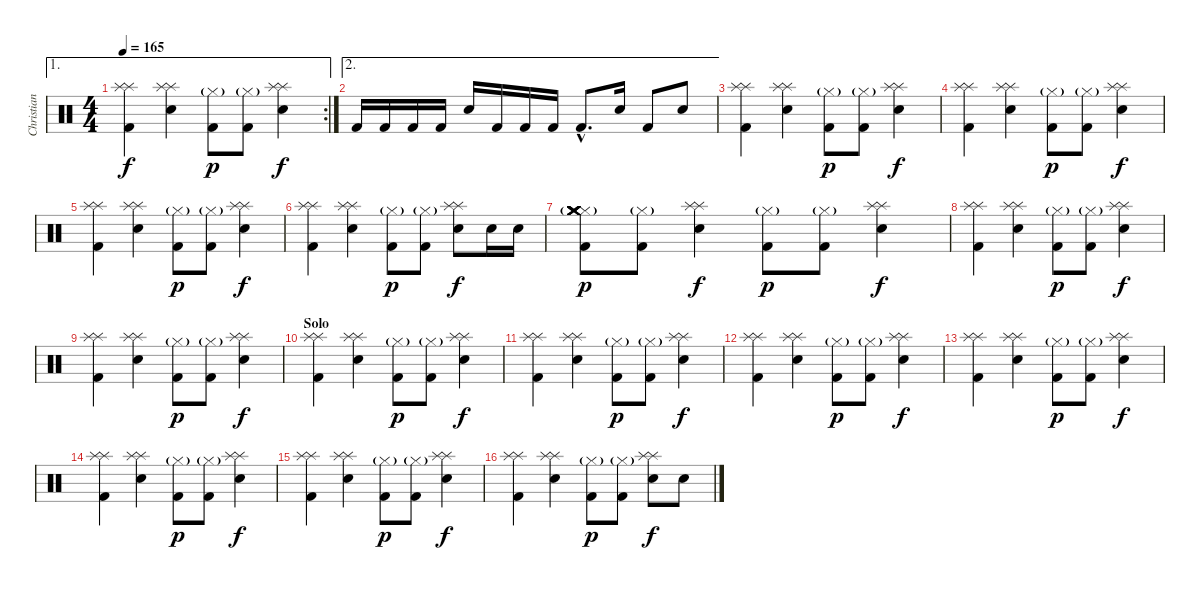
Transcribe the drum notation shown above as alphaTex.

\track ("Christian Batteria" "Christian ") {instrument percussion}
\staff {score}
\articulation defaults
\ae 1
\rc 2
\ts (4 4)
\tempo 165
\clef neutral
\ks c
("Splash (hit)" "Splash (hit)" "Kick (hit) 2").4{dy f} ("Splash (hit)" "Splash (hit)" "Snare (hit) 2").4 ("Hi-Hat (closed)"{g} "Kick (hit) 2").8{dy p} ("Hi-Hat (closed)"{g} "Kick (hit) 2").8 ("Splash (hit)" "Splash (hit)" "Snare (hit) 2").4{dy f} |
\ae 2 "Kick (hit) 2".16 "Kick (hit) 2".16 "Kick (hit) 2".16 "Kick (hit) 2".16 "Snare (hit) 2".16 "Kick (hit) 2".16 "Kick (hit) 2".16 "Kick (hit) 2".16 "Kick (hit) 2"{hac}.8{d} "Snare (hit) 2".16 "Kick (hit) 2".8 "Snare (hit) 2".8
|
("Splash (hit)" "Splash (hit)" "Kick (hit) 2").4 ("Splash (hit)" "Splash (hit)" "Snare (hit) 2").4 ("Hi-Hat (closed)"{g} "Kick (hit) 2").8{dy p} ("Hi-Hat (closed)"{g} "Kick (hit) 2").8 ("Splash (hit)" "Splash (hit)" "Snare (hit) 2").4{dy f} |
("Splash (hit)" "Splash (hit)" "Kick (hit) 2").4 ("Splash (hit)" "Splash (hit)" "Snare (hit) 2").4 ("Hi-Hat (closed)"{g} "Kick (hit) 2").8{dy p} ("Hi-Hat (closed)"{g} "Kick (hit) 2").8 ("Splash (hit)" "Splash (hit)" "Snare (hit) 2").4{dy f} |
("Splash (hit)" "Splash (hit)" "Kick (hit) 2").4 ("Splash (hit)" "Splash (hit)" "Snare (hit) 2").4 ("Hi-Hat (closed)"{g} "Kick (hit) 2").8{dy p} ("Hi-Hat (closed)"{g} "Kick (hit) 2").8 ("Splash (hit)" "Splash (hit)" "Snare (hit) 2").4{dy f} |
("Splash (hit)" "Splash (hit)" "Kick (hit) 2").4 ("Splash (hit)" "Splash (hit)" "Snare (hit) 2").4 ("Hi-Hat (closed)"{g} "Kick (hit) 2").8{dy p} ("Hi-Hat (closed)"{g} "Kick (hit) 2").8 ("Splash (hit)" "Splash (hit)" "Snare (hit) 2").8{dy f} "Electric Snare (hit)".16 "Electric Snare (hit)".16 |
("Hi-Hat (closed)"{g} "Crash medium (hit)" "Crash medium (hit)" "Crash medium (hit)" "Crash medium (hit)" "Kick (hit) 2").8{dy p} ("Hi-Hat (closed)"{g} "Kick (hit) 2").8 ("Splash (hit)" "Splash (hit)" "Snare (hit) 2").4{dy f} ("Hi-Hat (closed)"{g} "Kick (hit) 2").8{dy p} ("Hi-Hat (closed)"{g} "Kick (hit) 2").8 ("Splash (hit)" "Splash (hit)" "Snare (hit) 2").4{dy f} |
("Splash (hit)" "Splash (hit)" "Kick (hit) 2").4 ("Splash (hit)" "Splash (hit)" "Snare (hit) 2").4 ("Hi-Hat (closed)"{g} "Kick (hit) 2").8{dy p} ("Hi-Hat (closed)"{g} "Kick (hit) 2").8 ("Splash (hit)" "Splash (hit)" "Snare (hit) 2").4{dy f} |
("Splash (hit)" "Splash (hit)" "Kick (hit) 2").4 ("Splash (hit)" "Splash (hit)" "Snare (hit) 2").4 ("Hi-Hat (closed)"{g} "Kick (hit) 2").8{dy p} ("Hi-Hat (closed)"{g} "Kick (hit) 2").8 ("Splash (hit)" "Splash (hit)" "Snare (hit) 2").4{dy f} |
\section ("" "Solo")
("Splash (hit)" "Splash (hit)" "Kick (hit) 2").4 ("Splash (hit)" "Splash (hit)" "Snare (hit) 2").4 ("Hi-Hat (closed)"{g} "Kick (hit) 2").8{dy p} ("Hi-Hat (closed)"{g} "Kick (hit) 2").8 ("Splash (hit)" "Splash (hit)" "Snare (hit) 2").4{dy f} |
("Splash (hit)" "Splash (hit)" "Kick (hit) 2").4 ("Splash (hit)" "Splash (hit)" "Snare (hit) 2").4 ("Hi-Hat (closed)"{g} "Kick (hit) 2").8{dy p} ("Hi-Hat (closed)"{g} "Kick (hit) 2").8 ("Splash (hit)" "Splash (hit)" "Snare (hit) 2").4{dy f} |
("Splash (hit)" "Splash (hit)" "Kick (hit) 2").4 ("Splash (hit)" "Splash (hit)" "Snare (hit) 2").4 ("Hi-Hat (closed)"{g} "Kick (hit) 2").8{dy p} ("Hi-Hat (closed)"{g} "Kick (hit) 2").8 ("Splash (hit)" "Splash (hit)" "Snare (hit) 2").4{dy f} |
("Splash (hit)" "Splash (hit)" "Kick (hit) 2").4 ("Splash (hit)" "Splash (hit)" "Snare (hit) 2").4 ("Hi-Hat (closed)"{g} "Kick (hit) 2").8{dy p} ("Hi-Hat (closed)"{g} "Kick (hit) 2").8 ("Splash (hit)" "Splash (hit)" "Snare (hit) 2").4{dy f} |
("Splash (hit)" "Splash (hit)" "Kick (hit) 2").4 ("Splash (hit)" "Splash (hit)" "Snare (hit) 2").4 ("Hi-Hat (closed)"{g} "Kick (hit) 2").8{dy p} ("Hi-Hat (closed)"{g} "Kick (hit) 2").8 ("Splash (hit)" "Splash (hit)" "Snare (hit) 2").4{dy f} |
("Splash (hit)" "Splash (hit)" "Kick (hit) 2").4 ("Splash (hit)" "Splash (hit)" "Snare (hit) 2").4 ("Hi-Hat (closed)"{g} "Kick (hit) 2").8{dy p} ("Hi-Hat (closed)"{g} "Kick (hit) 2").8 ("Splash (hit)" "Splash (hit)" "Snare (hit) 2").4{dy f} |
("Splash (hit)" "Splash (hit)" "Kick (hit) 2").4 ("Splash (hit)" "Splash (hit)" "Snare (hit) 2").4 ("Hi-Hat (closed)"{g} "Kick (hit) 2").8{dy p} ("Hi-Hat (closed)"{g} "Kick (hit) 2").8 ("Splash (hit)" "Splash (hit)" "Snare (hit) 2").8{dy f} "Snare (hit) 2".8
